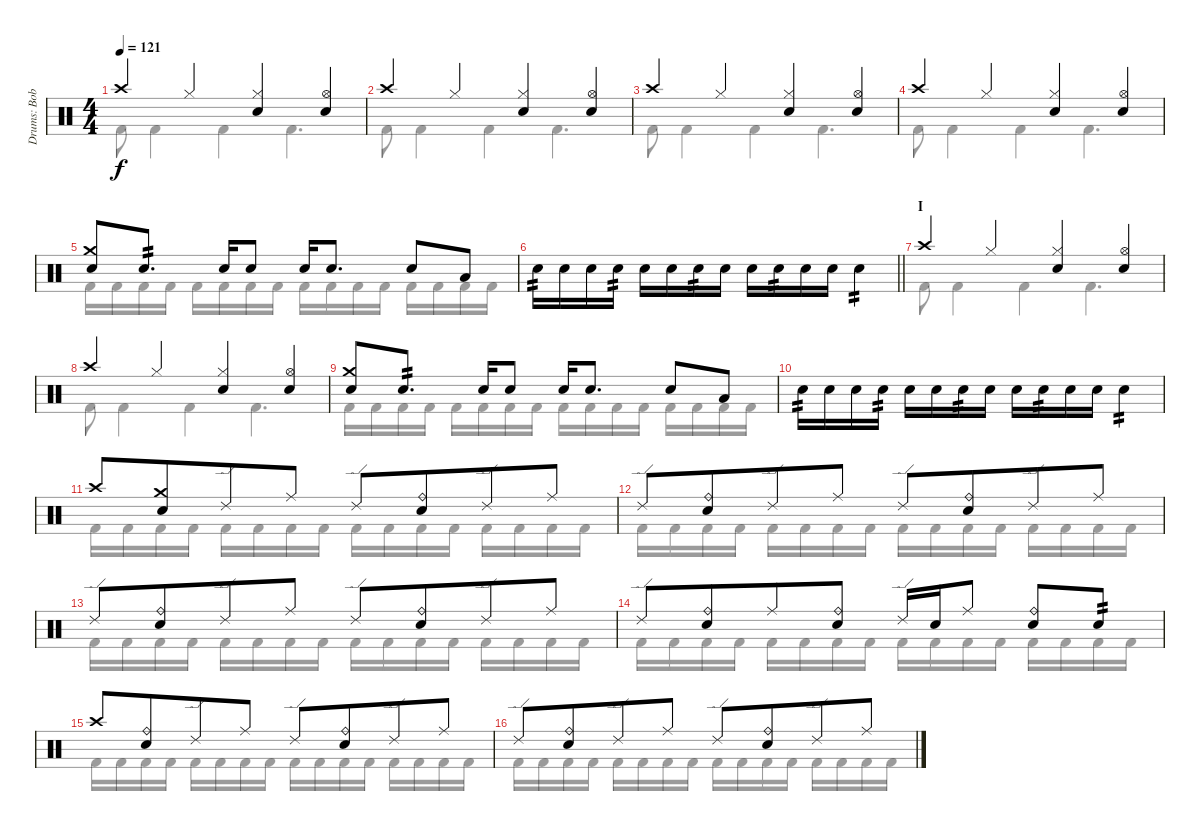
\track ("Drums: Bobby" "Drums: Bob") {instrument percussion}
\staff {score}
\articulation defaults
\voice
\ts (4 4)
\tempo 121
\clef neutral
\ks c "Crash high (hit)".4{dy f} "Hi-Hat (closed)".4
("Hi-Hat (closed)" "Snare (hit) 2").4 ("Hi-Hat (open)" "Snare (hit) 2").4 |
"Crash high (hit)".4 "Hi-Hat (closed)".4 ("Hi-Hat (closed)" "Snare (hit) 2").4 ("Hi-Hat (open)" "Snare (hit) 2").4 |
"Crash high (hit)".4 "Hi-Hat (closed)".4 ("Hi-Hat (closed)" "Snare (hit) 2").4 ("Hi-Hat (open)" "Snare (hit) 2").4 |
"Crash high (hit)".4 "Hi-Hat (closed)".4 ("Hi-Hat (closed)" "Snare (hit) 2").4 ("Hi-Hat (open)" "Snare (hit) 2").4 |
("Crash medium (hit)" "Snare (hit) 2").8 "Snare (hit) 2".8{d tp 2} "Snare (hit) 2".16 "Snare (hit) 2".8 "Snare (hit) 2".16 "Snare (hit) 2".8{d} "Snare (hit) 2".8 "Low Tom (hit)".8 |
\barLineRight lightlight "Snare (hit) 2".16{tp 2} "Snare (hit) 2".16 "Snare (hit) 2".16 "Snare (hit) 2".16{tp 2} "Snare (hit) 2".16 "Snare (hit) 2".16 "Snare (hit) 2".16{tp 2} "Snare (hit) 2".16 "Snare (hit) 2".16 "Snare (hit) 2".16{tp 2} "Snare (hit) 2".16 "Snare (hit) 2".16 "Snare (hit) 2".4{tp 2}
|
\section ("" "I")
"Crash high (hit)".4 "Hi-Hat (closed)".4 ("Hi-Hat (closed)" "Snare (hit) 2").4 ("Hi-Hat (open)" "Snare (hit) 2").4 |
"Crash high (hit)".4 "Hi-Hat (closed)".4 ("Hi-Hat (closed)" "Snare (hit) 2").4 ("Hi-Hat (open)" "Snare (hit) 2").4 |
("Crash medium (hit)" "Snare (hit) 2").8 "Snare (hit) 2".8{d tp 2} "Snare (hit) 2".16 "Snare (hit) 2".8 "Snare (hit) 2".16 "Snare (hit) 2".8{d} "Snare (hit) 2".8 "Low Tom (hit)".8 |
"Snare (hit) 2".16{tp 2} "Snare (hit) 2".16 "Snare (hit) 2".16 "Snare (hit) 2".16{tp 2} "Snare (hit) 2".16 "Snare (hit) 2".16 "Snare (hit) 2".16{tp 2} "Snare (hit) 2".16 "Snare (hit) 2".16 "Snare (hit) 2".16{tp 2} "Snare (hit) 2".16 "Snare (hit) 2".16 "Snare (hit) 2".4{tp 2} |
"Crash high (hit)".8 ("Crash medium (hit)" "Snare (hit) 2").8{beam merge} "Ride (edge) 2".8 "Ride (middle)".8 "Ride (edge) 2".8 ("Ride (bell)" "Snare (hit) 2").8{beam merge} "Ride (edge) 2".8 "Ride (middle)".8 |
"Ride (edge) 2".8 ("Ride (bell)" "Snare (hit) 2").8{beam merge} "Ride (edge) 2".8 "Ride (middle)".8 "Ride (edge) 2".8 ("Ride (bell)" "Snare (hit) 2").8{beam merge} "Ride (edge) 2".8 "Ride (middle)".8 |
"Ride (edge) 2".8 ("Ride (bell)" "Snare (hit) 2").8{beam merge} "Ride (edge) 2".8 "Ride (middle)".8 "Ride (edge) 2".8 ("Ride (bell)" "Snare (hit) 2").8{beam merge} "Ride (edge) 2".8 "Ride (middle)".8 |
"Ride (edge) 2".8 ("Ride (bell)" "Snare (hit) 2").8{beam merge} "Ride (middle)".8 ("Ride (bell)" "Snare (hit) 2").8 "Ride (edge) 2".16 "Snare (hit) 2".16 "Ride (middle)".8 ("Ride (bell)" "Snare (hit) 2").8 "Electric Snare (hit)".8{tp 2} |
"Crash high (hit)".8 ("Ride (bell)" "Snare (hit) 2").8{beam merge} "Ride (edge) 2".8 "Ride (middle)".8 "Ride (edge) 2".8 ("Ride (bell)" "Snare (hit) 2").8{beam merge} "Ride (edge) 2".8 "Ride (middle)".8 |
"Ride (edge) 2".8 ("Ride (bell)" "Snare (hit) 2").8{beam merge} "Ride (edge) 2".8 "Ride (middle)".8 "Ride (edge) 2".8 ("Ride (bell)" "Snare (hit) 2").8{beam merge} "Ride (edge) 2".8 "Ride (middle)".8
\voice
\clef neutral
\ottava regular
\simile none
\ks c "Kick (hit) 2".8{dy f} "Kick (hit) 2".4 "Kick (hit) 2".4 "Kick (hit) 2".4{d}
|
"Kick (hit) 2".8 "Kick (hit) 2".4 "Kick (hit) 2".4 "Kick (hit) 2".4{d} |
"Kick (hit) 2".8 "Kick (hit) 2".4 "Kick (hit) 2".4 "Kick (hit) 2".4{d} |
"Kick (hit) 2".8 "Kick (hit) 2".4 "Kick (hit) 2".4 "Kick (hit) 2".4{d} |
"Kick (hit) 2".16 "Kick (hit) 2".16 "Kick (hit) 2".16 "Kick (hit) 2".16 "Kick (hit) 2".16 "Kick (hit) 2".16 "Kick (hit) 2".16 "Kick (hit) 2".16 "Kick (hit) 2".16 "Kick (hit) 2".16 "Kick (hit) 2".16 "Kick (hit) 2".16 "Kick (hit) 2".16 "Kick (hit) 2".16 "Kick (hit) 2".16 "Kick (hit) 2".16 |
\barLineRight lightlight
|
"Kick (hit) 2".8 "Kick (hit) 2".4 "Kick (hit) 2".4 "Kick (hit) 2".4{d} |
"Kick (hit) 2".8 "Kick (hit) 2".4 "Kick (hit) 2".4 "Kick (hit) 2".4{d} |
"Kick (hit) 2".16 "Kick (hit) 2".16 "Kick (hit) 2".16 "Kick (hit) 2".16 "Kick (hit) 2".16 "Kick (hit) 2".16 "Kick (hit) 2".16 "Kick (hit) 2".16 "Kick (hit) 2".16 "Kick (hit) 2".16 "Kick (hit) 2".16 "Kick (hit) 2".16 "Kick (hit) 2".16 "Kick (hit) 2".16 "Kick (hit) 2".16 "Kick (hit) 2".16 |
|
"Kick (hit) 2".16 "Kick (hit) 2".16 "Kick (hit) 2".16 "Kick (hit) 2".16 "Kick (hit) 2".16 "Kick (hit) 2".16 "Kick (hit) 2".16 "Kick (hit) 2".16 "Kick (hit) 2".16 "Kick (hit) 2".16 "Kick (hit) 2".16 "Kick (hit) 2".16 "Kick (hit) 2".16 "Kick (hit) 2".16 "Kick (hit) 2".16 "Kick (hit) 2".16 |
"Kick (hit) 2".16 "Kick (hit) 2".16 "Kick (hit) 2".16 "Kick (hit) 2".16 "Kick (hit) 2".16 "Kick (hit) 2".16 "Kick (hit) 2".16 "Kick (hit) 2".16 "Kick (hit) 2".16 "Kick (hit) 2".16 "Kick (hit) 2".16 "Kick (hit) 2".16 "Kick (hit) 2".16 "Kick (hit) 2".16 "Kick (hit) 2".16 "Kick (hit) 2".16 |
"Kick (hit) 2".16 "Kick (hit) 2".16 "Kick (hit) 2".16 "Kick (hit) 2".16 "Kick (hit) 2".16 "Kick (hit) 2".16 "Kick (hit) 2".16 "Kick (hit) 2".16 "Kick (hit) 2".16 "Kick (hit) 2".16 "Kick (hit) 2".16 "Kick (hit) 2".16 "Kick (hit) 2".16 "Kick (hit) 2".16 "Kick (hit) 2".16 "Kick (hit) 2".16 |
"Kick (hit) 2".16 "Kick (hit) 2".16 "Kick (hit) 2".16 "Kick (hit) 2".16 "Kick (hit) 2".16 "Kick (hit) 2".16 "Kick (hit) 2".16 "Kick (hit) 2".16 "Kick (hit) 2".16 "Kick (hit) 2".16 "Kick (hit) 2".16 "Kick (hit) 2".16 "Kick (hit) 2".16 "Kick (hit) 2".16 "Kick (hit) 2".16 "Kick (hit) 2".16 |
"Kick (hit) 2".16 "Kick (hit) 2".16 "Kick (hit) 2".16 "Kick (hit) 2".16 "Kick (hit) 2".16 "Kick (hit) 2".16 "Kick (hit) 2".16 "Kick (hit) 2".16 "Kick (hit) 2".16 "Kick (hit) 2".16 "Kick (hit) 2".16 "Kick (hit) 2".16 "Kick (hit) 2".16 "Kick (hit) 2".16 "Kick (hit) 2".16 "Kick (hit) 2".16 |
"Kick (hit) 2".16 "Kick (hit) 2".16 "Kick (hit) 2".16 "Kick (hit) 2".16 "Kick (hit) 2".16 "Kick (hit) 2".16 "Kick (hit) 2".16 "Kick (hit) 2".16 "Kick (hit) 2".16 "Kick (hit) 2".16 "Kick (hit) 2".16 "Kick (hit) 2".16 "Kick (hit) 2".16 "Kick (hit) 2".16 "Kick (hit) 2".16 "Kick (hit) 2".16
